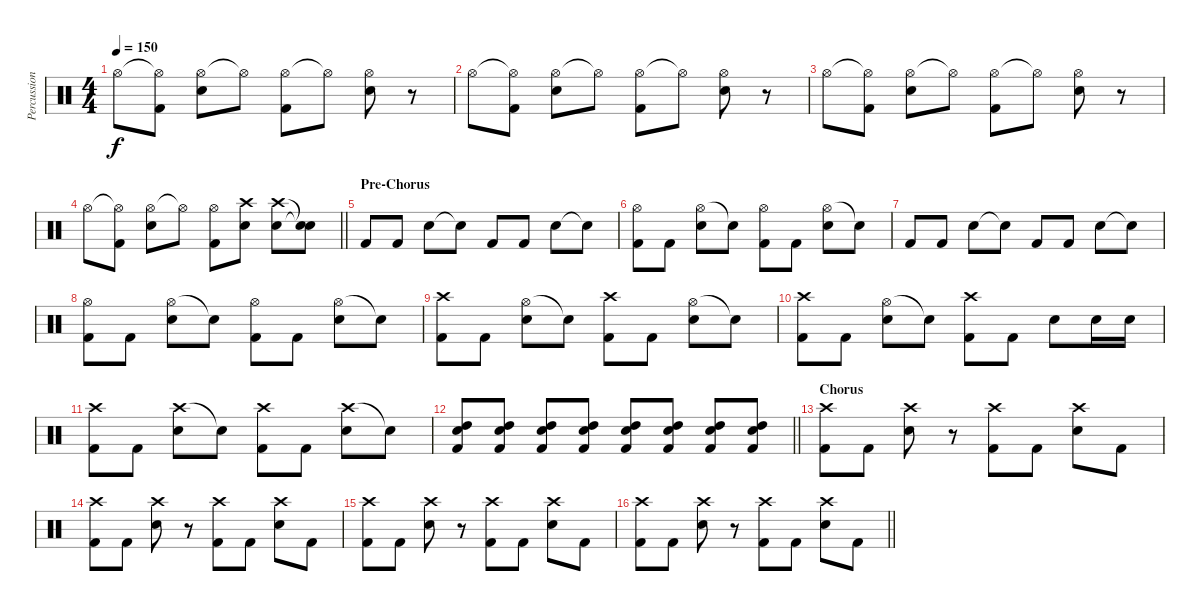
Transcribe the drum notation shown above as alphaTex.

\track ("Percussion" "Percussion") {instrument percussion}
\staff {score}
\articulation defaults
\ts (4 4)
\tempo 150
\clef neutral
\ks c "Hi-Hat (open)".8{dy f}
("Hi-Hat (open)"{t} "Kick (hit) 2").8 ("Hi-Hat (open)" "Electric Snare (hit)").8 "Hi-Hat (open)"{t}.8 ("Hi-Hat (open)" "Kick (hit) 2").8 "Hi-Hat (open)"{t}.8 ("Hi-Hat (open)" "Electric Snare (hit)").8 r.8 |
"Hi-Hat (open)".8 ("Hi-Hat (open)"{t} "Kick (hit) 2").8 ("Hi-Hat (open)" "Electric Snare (hit)").8 "Hi-Hat (open)"{t}.8 ("Hi-Hat (open)" "Kick (hit) 2").8 "Hi-Hat (open)"{t}.8 ("Hi-Hat (open)" "Electric Snare (hit)").8 r.8 |
"Hi-Hat (open)".8 ("Hi-Hat (open)"{t} "Kick (hit) 2").8 ("Hi-Hat (open)" "Electric Snare (hit)").8 "Hi-Hat (open)"{t}.8 ("Hi-Hat (open)" "Kick (hit) 2").8 "Hi-Hat (open)"{t}.8 ("Hi-Hat (open)" "Electric Snare (hit)").8 r.8 |
\barLineRight lightlight "Hi-Hat (open)".8
("Hi-Hat (open)"{t} "Kick (hit) 2").8 ("Hi-Hat (open)" "Electric Snare (hit)").8 "Hi-Hat (open)"{t}.8 ("Hi-Hat (open)" "Kick (hit) 2").8 ("Crash high (hit)" "Electric Snare (hit)").8 ("Crash high (hit)" "Electric Snare (hit)").8 ("Snare (hit)"{t} "Snare (hit)"{t}).8 |
\section ("" "Pre-Chorus")
"Kick (hit) 2".8 "Kick (hit) 2".8 "Electric Snare (hit)".8 "Snare (hit)"{t}.8 "Kick (hit) 2".8 "Kick (hit) 2".8 "Electric Snare (hit)".8 "Snare (hit)"{t}.8 |
("Hi-Hat (open)" "Kick (hit) 2").8 "Kick (hit) 2".8 ("Hi-Hat (open)" "Electric Snare (hit)").8 "Snare (hit)"{t}.8 ("Hi-Hat (open)" "Kick (hit) 2").8 "Kick (hit) 2".8 ("Hi-Hat (open)" "Electric Snare (hit)").8 "Snare (hit)"{t}.8 |
"Kick (hit) 2".8 "Kick (hit) 2".8 "Electric Snare (hit)".8 "Snare (hit)"{t}.8 "Kick (hit) 2".8 "Kick (hit) 2".8 "Electric Snare (hit)".8 "Snare (hit)"{t}.8 |
("Hi-Hat (open)" "Kick (hit) 2").8 "Kick (hit) 2".8 ("Hi-Hat (open)" "Electric Snare (hit)").8 "Snare (hit)"{t}.8 ("Hi-Hat (open)" "Kick (hit) 2").8 "Kick (hit) 2".8 ("Hi-Hat (open)" "Electric Snare (hit)").8 "Snare (hit)"{t}.8 |
("Crash high (hit)" "Kick (hit) 2").8 "Kick (hit) 2".8 ("Hi-Hat (open)" "Electric Snare (hit)").8 "Snare (hit)"{t}.8 ("Crash high (hit)" "Kick (hit) 2").8 "Kick (hit) 2".8 ("Hi-Hat (open)" "Electric Snare (hit)").8 "Snare (hit)"{t}.8 |
("Crash high (hit)" "Kick (hit) 2").8 "Kick (hit) 2".8 ("Hi-Hat (open)" "Electric Snare (hit)").8 "Snare (hit)"{t}.8 ("Crash high (hit)" "Kick (hit) 2").8 "Kick (hit) 2".8 "Electric Snare (hit)".8 "Electric Snare (hit)".16 "Electric Snare (hit)".16 |
("Crash high (hit)" "Kick (hit) 2").8 "Kick (hit) 2".8 ("Crash high (hit)" "Electric Snare (hit)").8 "Snare (hit)"{t}.8 ("Crash high (hit)" "Kick (hit) 2").8 "Kick (hit) 2".8 ("Crash high (hit)" "Electric Snare (hit)").8 "Snare (hit)"{t}.8 |
\barLineRight lightlight
("Electric Snare (hit)" "High Tom (hit)" "Kick (hit) 2").8 ("Electric Snare (hit)" "High Tom (hit)" "Kick (hit) 2").8 ("Electric Snare (hit)" "High Tom (hit)" "Kick (hit) 2").8 ("Electric Snare (hit)" "High Tom (hit)" "Kick (hit) 2").8 ("Electric Snare (hit)" "High Tom (hit)" "Kick (hit) 2").8 ("Electric Snare (hit)" "High Tom (hit)" "Kick (hit) 2").8 ("Electric Snare (hit)" "High Tom (hit)" "Kick (hit) 2").8 ("Electric Snare (hit)" "High Tom (hit)" "Kick (hit) 2").8 |
\section ("" "Chorus")
("Crash high (hit)" "Kick (hit) 2").8 "Kick (hit) 2".8 ("Crash high (hit)" "Electric Snare (hit)").8 r.8 ("Crash high (hit)" "Kick (hit) 2").8 "Kick (hit) 2".8 ("Crash high (hit)" "Electric Snare (hit)").8 "Kick (hit) 2".8 |
("Crash high (hit)" "Kick (hit) 2").8 "Kick (hit) 2".8 ("Crash high (hit)" "Electric Snare (hit)").8 r.8 ("Crash high (hit)" "Kick (hit) 2").8 "Kick (hit) 2".8 ("Crash high (hit)" "Electric Snare (hit)").8 "Kick (hit) 2".8 |
("Crash high (hit)" "Kick (hit) 2").8 "Kick (hit) 2".8 ("Crash high (hit)" "Electric Snare (hit)").8 r.8 ("Crash high (hit)" "Kick (hit) 2").8 "Kick (hit) 2".8 ("Crash high (hit)" "Electric Snare (hit)").8 "Kick (hit) 2".8 |
\barLineRight lightlight
("Crash high (hit)" "Kick (hit) 2").8 "Kick (hit) 2".8 ("Crash high (hit)" "Electric Snare (hit)").8 r.8 ("Crash high (hit)" "Kick (hit) 2").8 "Kick (hit) 2".8 ("Crash high (hit)" "Electric Snare (hit)").8 "Kick (hit) 2".8
